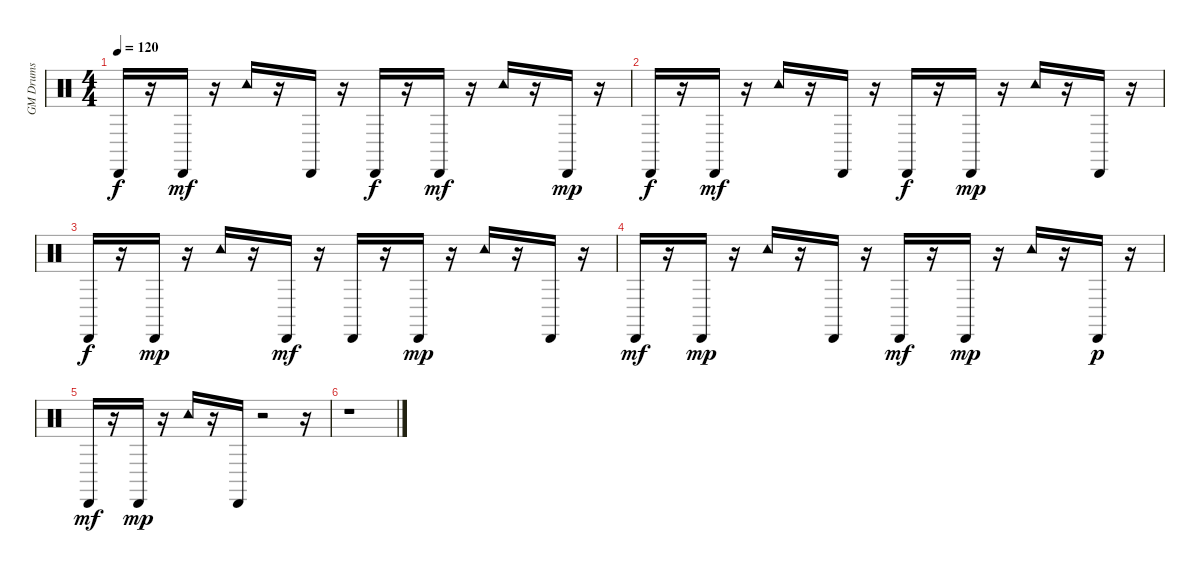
\track ("GM Drums" "GM Drums") {instrument percussion}
\staff {score}
\articulation defaults
\ts (4 4)
\tempo 120
\clef neutral
\ks c "Cabasa (hit)".16{dy f}
r.16 "Cabasa (hit)".16{dy mf} r.16 "Tambourine (hit)".16 r.16 "Cabasa (hit)".16 r.16 "Cabasa (hit)".16{dy f} r.16 "Cabasa (hit)".16{dy mf} r.16 "Tambourine (hit)".16 r.16 "Cabasa (hit)".16{dy mp} r.16 |
"Cabasa (hit)".16{dy f} r.16 "Cabasa (hit)".16{dy mf} r.16 "Tambourine (hit)".16 r.16 "Cabasa (hit)".16 r.16 "Cabasa (hit)".16{dy f} r.16 "Cabasa (hit)".16{dy mp} r.16 "Tambourine (hit)".16 r.16 "Cabasa (hit)".16 r.16 |
"Cabasa (hit)".16{dy f} r.16 "Cabasa (hit)".16{dy mp} r.16 "Tambourine (hit)".16 r.16 "Cabasa (hit)".16{dy mf} r.16 "Cabasa (hit)".16 r.16 "Cabasa (hit)".16{dy mp} r.16 "Tambourine (hit)".16 r.16 "Cabasa (hit)".16 r.16 |
"Cabasa (hit)".16{dy mf} r.16 "Cabasa (hit)".16{dy mp} r.16 "Tambourine (hit)".16 r.16 "Cabasa (hit)".16 r.16 "Cabasa (hit)".16{dy mf} r.16 "Cabasa (hit)".16{dy mp} r.16 "Tambourine (hit)".16 r.16 "Cabasa (hit)".16{dy p} r.16 |
"Cabasa (hit)".16{dy mf} r.16 "Cabasa (hit)".16{dy mp} r.16 "Tambourine (hit)".16 r.16 "Cabasa (hit)".16 r.2 r.16 |
r.1
